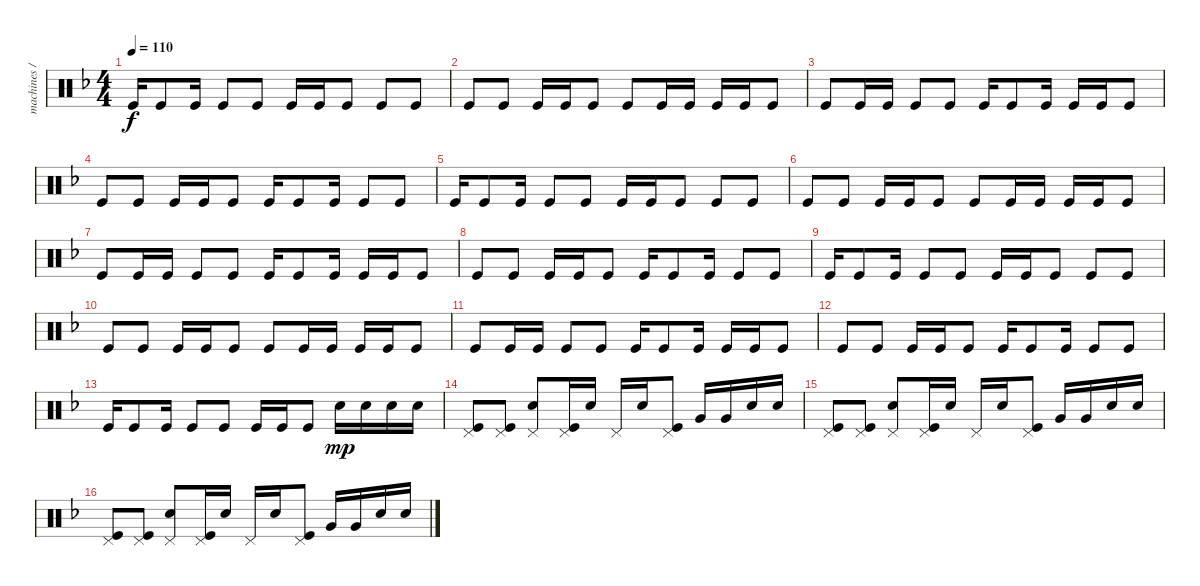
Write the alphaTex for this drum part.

\track ("machines / drum" "machines /") {instrument percussion}
\staff {score}
\articulation defaults
\ts (4 4)
\tempo 110
\clef neutral
\ks f "Kick (hit)".16{dy f} "Kick (hit)".8 "Kick (hit)".16 "Kick (hit)".8 "Kick (hit)".8 "Kick (hit)".16 "Kick (hit)".16 "Kick (hit)".8 "Kick (hit)".8 "Kick (hit)".8
|
"Kick (hit)".8 "Kick (hit)".8 "Kick (hit)".16 "Kick (hit)".16 "Kick (hit)".8 "Kick (hit)".8 "Kick (hit)".16 "Kick (hit)".16 "Kick (hit)".16 "Kick (hit)".16 "Kick (hit)".8 |
"Kick (hit)".8 "Kick (hit)".16 "Kick (hit)".16 "Kick (hit)".8 "Kick (hit)".8 "Kick (hit)".16 "Kick (hit)".8 "Kick (hit)".16 "Kick (hit)".16 "Kick (hit)".16 "Kick (hit)".8 |
"Kick (hit)".8 "Kick (hit)".8 "Kick (hit)".16 "Kick (hit)".16 "Kick (hit)".8 "Kick (hit)".16 "Kick (hit)".8 "Kick (hit)".16 "Kick (hit)".8 "Kick (hit)".8 |
"Kick (hit)".16 "Kick (hit)".8 "Kick (hit)".16 "Kick (hit)".8 "Kick (hit)".8 "Kick (hit)".16 "Kick (hit)".16 "Kick (hit)".8 "Kick (hit)".8 "Kick (hit)".8 |
"Kick (hit)".8 "Kick (hit)".8 "Kick (hit)".16 "Kick (hit)".16 "Kick (hit)".8 "Kick (hit)".8 "Kick (hit)".16 "Kick (hit)".16 "Kick (hit)".16 "Kick (hit)".16 "Kick (hit)".8 |
"Kick (hit)".8 "Kick (hit)".16 "Kick (hit)".16 "Kick (hit)".8 "Kick (hit)".8 "Kick (hit)".16 "Kick (hit)".8 "Kick (hit)".16 "Kick (hit)".16 "Kick (hit)".16 "Kick (hit)".8 |
"Kick (hit)".8 "Kick (hit)".8 "Kick (hit)".16 "Kick (hit)".16 "Kick (hit)".8 "Kick (hit)".16 "Kick (hit)".8 "Kick (hit)".16 "Kick (hit)".8 "Kick (hit)".8 |
"Kick (hit)".16 "Kick (hit)".8 "Kick (hit)".16 "Kick (hit)".8 "Kick (hit)".8 "Kick (hit)".16 "Kick (hit)".16 "Kick (hit)".8 "Kick (hit)".8 "Kick (hit)".8 |
"Kick (hit)".8 "Kick (hit)".8 "Kick (hit)".16 "Kick (hit)".16 "Kick (hit)".8 "Kick (hit)".8 "Kick (hit)".16 "Kick (hit)".16 "Kick (hit)".16 "Kick (hit)".16 "Kick (hit)".8 |
"Kick (hit)".8 "Kick (hit)".16 "Kick (hit)".16 "Kick (hit)".8 "Kick (hit)".8 "Kick (hit)".16 "Kick (hit)".8 "Kick (hit)".16 "Kick (hit)".16 "Kick (hit)".16 "Kick (hit)".8 |
"Kick (hit)".8 "Kick (hit)".8 "Kick (hit)".16 "Kick (hit)".16 "Kick (hit)".8 "Kick (hit)".16 "Kick (hit)".8 "Kick (hit)".16 "Kick (hit)".8 "Kick (hit)".8 |
"Kick (hit)".16 "Kick (hit)".8 "Kick (hit)".16 "Kick (hit)".8 "Kick (hit)".8 "Kick (hit)".16 "Kick (hit)".16 "Kick (hit)".8 "Electric Snare (hit)".16{dy mp} "Electric Snare (hit)".16 "Electric Snare (hit)".16 "Electric Snare (hit)".16 |
("Pedal Hi-Hat (hit)" "Kick (hit)").8 ("Pedal Hi-Hat (hit)" "Kick (hit)").8 ("Pedal Hi-Hat (hit)" "Electric Snare (hit)").8 ("Pedal Hi-Hat (hit)" "Kick (hit)").16 "Electric Snare (hit)".16 "Pedal Hi-Hat (hit)".16 "Electric Snare (hit)".16 ("Pedal Hi-Hat (hit)" "Kick (hit)").8 "Very Low Tom (hit)".16 "Very Low Tom (hit)".16 "Electric Snare (hit)".16 "Electric Snare (hit)".16 |
("Pedal Hi-Hat (hit)" "Kick (hit)").8 ("Pedal Hi-Hat (hit)" "Kick (hit)").8 ("Pedal Hi-Hat (hit)" "Electric Snare (hit)").8 ("Pedal Hi-Hat (hit)" "Kick (hit)").16 "Electric Snare (hit)".16 "Pedal Hi-Hat (hit)".16 "Electric Snare (hit)".16 ("Pedal Hi-Hat (hit)" "Kick (hit)").8 "Very Low Tom (hit)".16 "Very Low Tom (hit)".16 "Electric Snare (hit)".16 "Electric Snare (hit)".16 |
("Pedal Hi-Hat (hit)" "Kick (hit)").8 ("Pedal Hi-Hat (hit)" "Kick (hit)").8 ("Pedal Hi-Hat (hit)" "Electric Snare (hit)").8 ("Pedal Hi-Hat (hit)" "Kick (hit)").16 "Electric Snare (hit)".16 "Pedal Hi-Hat (hit)".16 "Electric Snare (hit)".16 ("Pedal Hi-Hat (hit)" "Kick (hit)").8 "Very Low Tom (hit)".16 "Very Low Tom (hit)".16 "Electric Snare (hit)".16 "Electric Snare (hit)".16
